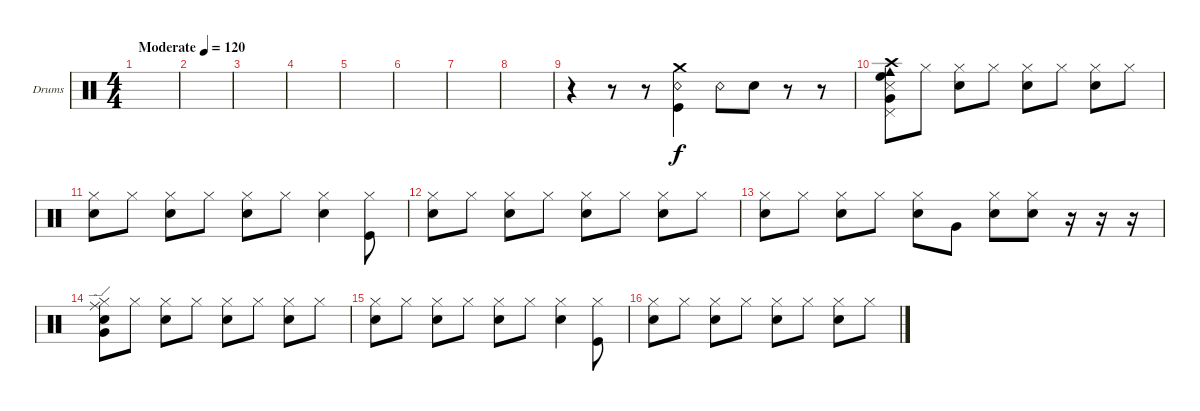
\bracketExtendMode groupsimilarinstruments
\firstSystemTrackNameOrientation horizontal
\otherSystemsTrackNameOrientation horizontal
\track ("Drumkit" "Drums") {instrument percussion}
\staff {score}
\articulation defaults
\ts (4 4)
\tempo (120 "Moderate")
\clef neutral
\ks c
|
|
|
|
|
|
|
|
\beaming (8 2 2 2 2)
r.4 r.8 r.8 ("Snare (rim shot)" "Kick (hit)" "Crash medium (hit)").4 "Snare (rim shot)".8 "Snare (hit) 2".8 r.8 r.8 |
("Snare (side stick) 3" "Crash high (hit)" "Cowbell medium (hit)" "Very Low Tom (hit)" "Pedal Hi-Hat (hit)" "High Floor Tom (hit)").8 "Hi-Hat (closed)".8 ("Snare (hit) 2" "Hi-Hat (closed)").8 "Hi-Hat (closed)".8 ("Hi-Hat (closed)" "Snare (hit) 2").8 "Hi-Hat (closed)".8 ("Hi-Hat (closed)" "Snare (hit) 2").8 "Hi-Hat (closed)".8 |
("Hi-Hat (closed)" "Snare (hit) 2").8 "Hi-Hat (closed)".8 ("Hi-Hat (closed)" "Snare (hit) 2").8 "Hi-Hat (closed)".8 ("Hi-Hat (closed)" "Snare (hit) 2").8 "Hi-Hat (closed)".8 ("Hi-Hat (closed)" "Snare (hit) 2").4 ("Hi-Hat (closed)" "Kick (hit)").8 |
("Hi-Hat (closed)" "Snare (hit) 2").8 "Hi-Hat (closed)".8 ("Hi-Hat (closed)" "Snare (hit) 2").8 "Hi-Hat (closed)".8 ("Hi-Hat (closed)" "Snare (hit) 2").8 "Hi-Hat (closed)".8 ("Hi-Hat (closed)" "Snare (hit) 2").8 "Hi-Hat (closed)".8 |
("Hi-Hat (closed)" "Snare (hit) 2").8 "Hi-Hat (closed)".8 ("Hi-Hat (closed)" "Snare (hit) 2").8 "Hi-Hat (closed)".8 ("Hi-Hat (closed)" "Snare (hit) 2").8 "Very Low Tom (hit)".8 ("Hi-Hat (closed)" "Snare (hit) 2").8 ("Snare (hit) 2" "Hi-Hat (closed)").8 r.16 r.16 r.16 |
("Snare (hit) 2" "Ride (edge)" "Hi-Hat (closed)" "Very Low Tom (hit)").8 "Hi-Hat (closed)".8 ("Hi-Hat (closed)" "Snare (hit) 2").8 "Hi-Hat (closed)".8 ("Hi-Hat (closed)" "Snare (hit) 2").8 "Hi-Hat (closed)".8 ("Hi-Hat (closed)" "Snare (hit) 2").8 "Hi-Hat (closed)".8 |
("Hi-Hat (closed)" "Snare (hit) 2").8 "Hi-Hat (closed)".8 ("Hi-Hat (closed)" "Snare (hit) 2").8 "Hi-Hat (closed)".8 ("Hi-Hat (closed)" "Snare (hit) 2").8 "Hi-Hat (closed)".8 ("Hi-Hat (closed)" "Snare (hit) 2").4 ("Hi-Hat (closed)" "Kick (hit)").8 |
("Hi-Hat (closed)" "Snare (hit) 2").8 "Hi-Hat (closed)".8 ("Hi-Hat (closed)" "Snare (hit) 2").8 "Hi-Hat (closed)".8 ("Hi-Hat (closed)" "Snare (hit) 2").8 "Hi-Hat (closed)".8 ("Hi-Hat (closed)" "Snare (hit) 2").8 "Hi-Hat (closed)".8
